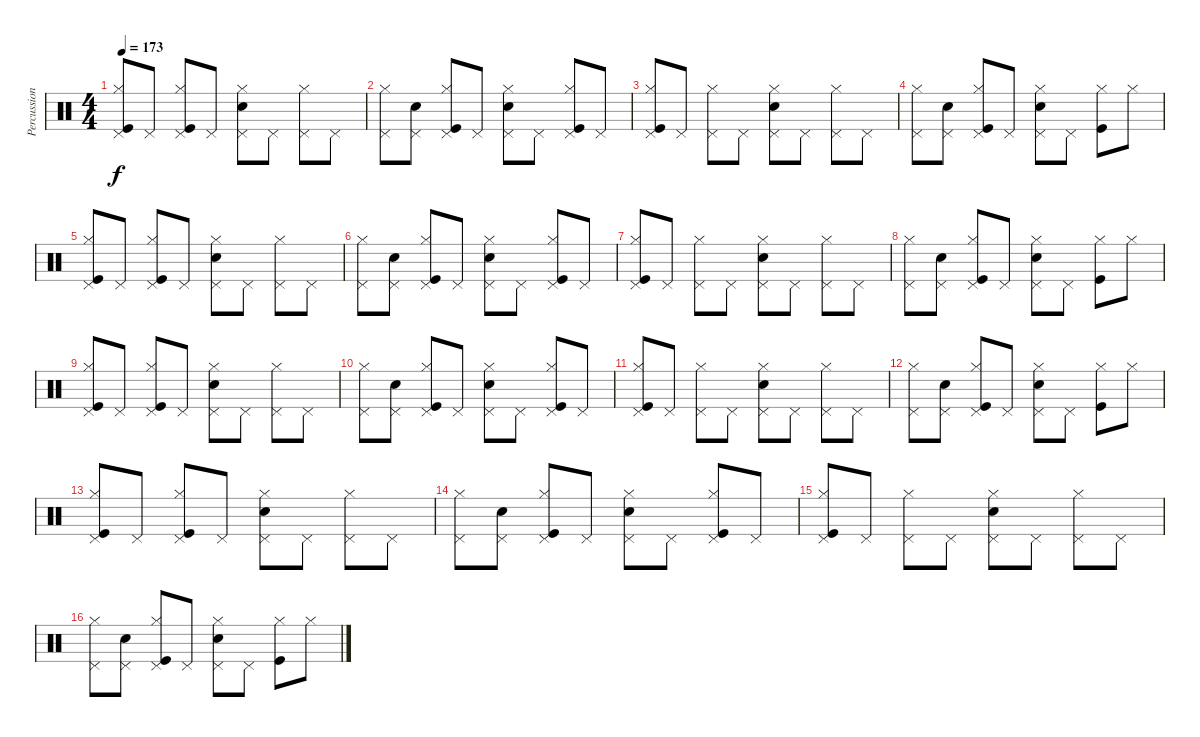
\track ("Percussion" "Percussion") {instrument percussion}
\staff {score}
\articulation defaults
\ts (4 4)
\tempo 173
\clef neutral
\ks c
("Kick (hit)" "Hi-Hat (closed)" "Pedal Hi-Hat (hit)").8{dy f} "Pedal Hi-Hat (hit)".8 ("Kick (hit)" "Hi-Hat (closed)" "Pedal Hi-Hat (hit)").8 "Pedal Hi-Hat (hit)".8 ("Snare (hit) 2" "Hi-Hat (closed)" "Pedal Hi-Hat (hit)").8 "Pedal Hi-Hat (hit)".8 ("Hi-Hat (closed)" "Pedal Hi-Hat (hit)").8 "Pedal Hi-Hat (hit)".8 |
("Hi-Hat (closed)" "Pedal Hi-Hat (hit)").8 ("Snare (hit) 2" "Pedal Hi-Hat (hit)").8 ("Kick (hit)" "Hi-Hat (closed)" "Pedal Hi-Hat (hit)").8 "Pedal Hi-Hat (hit)".8 ("Snare (hit) 2" "Hi-Hat (closed)" "Pedal Hi-Hat (hit)").8 "Pedal Hi-Hat (hit)".8 ("Kick (hit)" "Hi-Hat (closed)" "Pedal Hi-Hat (hit)").8 "Pedal Hi-Hat (hit)".8 |
("Kick (hit)" "Hi-Hat (closed)" "Pedal Hi-Hat (hit)").8 "Pedal Hi-Hat (hit)".8 ("Hi-Hat (closed)" "Pedal Hi-Hat (hit)").8 "Pedal Hi-Hat (hit)".8 ("Snare (hit) 2" "Hi-Hat (closed)" "Pedal Hi-Hat (hit)").8 "Pedal Hi-Hat (hit)".8 ("Hi-Hat (closed)" "Pedal Hi-Hat (hit)").8 "Pedal Hi-Hat (hit)".8 |
("Hi-Hat (closed)" "Pedal Hi-Hat (hit)").8 ("Snare (hit) 2" "Pedal Hi-Hat (hit)").8 ("Kick (hit)" "Hi-Hat (closed)" "Pedal Hi-Hat (hit)").8 "Pedal Hi-Hat (hit)".8 ("Snare (hit) 2" "Hi-Hat (closed)" "Pedal Hi-Hat (hit)").8 "Pedal Hi-Hat (hit)".8 ("Kick (hit)" "Hi-Hat (closed)").8 "Hi-Hat (closed)".8 |
("Kick (hit)" "Hi-Hat (closed)" "Pedal Hi-Hat (hit)").8 "Pedal Hi-Hat (hit)".8 ("Kick (hit)" "Hi-Hat (closed)" "Pedal Hi-Hat (hit)").8 "Pedal Hi-Hat (hit)".8 ("Snare (hit) 2" "Hi-Hat (closed)" "Pedal Hi-Hat (hit)").8 "Pedal Hi-Hat (hit)".8 ("Hi-Hat (closed)" "Pedal Hi-Hat (hit)").8 "Pedal Hi-Hat (hit)".8 |
("Hi-Hat (closed)" "Pedal Hi-Hat (hit)").8 ("Snare (hit) 2" "Pedal Hi-Hat (hit)").8 ("Kick (hit)" "Hi-Hat (closed)" "Pedal Hi-Hat (hit)").8 "Pedal Hi-Hat (hit)".8 ("Snare (hit) 2" "Hi-Hat (closed)" "Pedal Hi-Hat (hit)").8 "Pedal Hi-Hat (hit)".8 ("Kick (hit)" "Hi-Hat (closed)" "Pedal Hi-Hat (hit)").8 "Pedal Hi-Hat (hit)".8 |
("Kick (hit)" "Hi-Hat (closed)" "Pedal Hi-Hat (hit)").8 "Pedal Hi-Hat (hit)".8 ("Hi-Hat (closed)" "Pedal Hi-Hat (hit)").8 "Pedal Hi-Hat (hit)".8 ("Snare (hit) 2" "Hi-Hat (closed)" "Pedal Hi-Hat (hit)").8 "Pedal Hi-Hat (hit)".8 ("Hi-Hat (closed)" "Pedal Hi-Hat (hit)").8 "Pedal Hi-Hat (hit)".8 |
("Hi-Hat (closed)" "Pedal Hi-Hat (hit)").8 ("Snare (hit) 2" "Pedal Hi-Hat (hit)").8 ("Kick (hit)" "Hi-Hat (closed)" "Pedal Hi-Hat (hit)").8 "Pedal Hi-Hat (hit)".8 ("Snare (hit) 2" "Hi-Hat (closed)" "Pedal Hi-Hat (hit)").8 "Pedal Hi-Hat (hit)".8 ("Kick (hit)" "Hi-Hat (closed)").8 "Hi-Hat (closed)".8 |
("Kick (hit)" "Hi-Hat (closed)" "Pedal Hi-Hat (hit)").8 "Pedal Hi-Hat (hit)".8 ("Kick (hit)" "Hi-Hat (closed)" "Pedal Hi-Hat (hit)").8 "Pedal Hi-Hat (hit)".8 ("Snare (hit) 2" "Hi-Hat (closed)" "Pedal Hi-Hat (hit)").8 "Pedal Hi-Hat (hit)".8 ("Hi-Hat (closed)" "Pedal Hi-Hat (hit)").8 "Pedal Hi-Hat (hit)".8 |
("Hi-Hat (closed)" "Pedal Hi-Hat (hit)").8 ("Snare (hit) 2" "Pedal Hi-Hat (hit)").8 ("Kick (hit)" "Hi-Hat (closed)" "Pedal Hi-Hat (hit)").8 "Pedal Hi-Hat (hit)".8 ("Snare (hit) 2" "Hi-Hat (closed)" "Pedal Hi-Hat (hit)").8 "Pedal Hi-Hat (hit)".8 ("Kick (hit)" "Hi-Hat (closed)" "Pedal Hi-Hat (hit)").8 "Pedal Hi-Hat (hit)".8 |
("Kick (hit)" "Hi-Hat (closed)" "Pedal Hi-Hat (hit)").8 "Pedal Hi-Hat (hit)".8 ("Hi-Hat (closed)" "Pedal Hi-Hat (hit)").8 "Pedal Hi-Hat (hit)".8 ("Snare (hit) 2" "Hi-Hat (closed)" "Pedal Hi-Hat (hit)").8 "Pedal Hi-Hat (hit)".8 ("Hi-Hat (closed)" "Pedal Hi-Hat (hit)").8 "Pedal Hi-Hat (hit)".8 |
("Hi-Hat (closed)" "Pedal Hi-Hat (hit)").8 ("Snare (hit) 2" "Pedal Hi-Hat (hit)").8 ("Kick (hit)" "Hi-Hat (closed)" "Pedal Hi-Hat (hit)").8 "Pedal Hi-Hat (hit)".8 ("Snare (hit) 2" "Hi-Hat (closed)" "Pedal Hi-Hat (hit)").8 "Pedal Hi-Hat (hit)".8 ("Kick (hit)" "Hi-Hat (closed)").8 "Hi-Hat (closed)".8 |
("Kick (hit)" "Hi-Hat (closed)" "Pedal Hi-Hat (hit)").8 "Pedal Hi-Hat (hit)".8 ("Kick (hit)" "Hi-Hat (closed)" "Pedal Hi-Hat (hit)").8 "Pedal Hi-Hat (hit)".8 ("Snare (hit) 2" "Hi-Hat (closed)" "Pedal Hi-Hat (hit)").8 "Pedal Hi-Hat (hit)".8 ("Hi-Hat (closed)" "Pedal Hi-Hat (hit)").8 "Pedal Hi-Hat (hit)".8 |
("Hi-Hat (closed)" "Pedal Hi-Hat (hit)").8 ("Snare (hit) 2" "Pedal Hi-Hat (hit)").8 ("Kick (hit)" "Hi-Hat (closed)" "Pedal Hi-Hat (hit)").8 "Pedal Hi-Hat (hit)".8 ("Snare (hit) 2" "Hi-Hat (closed)" "Pedal Hi-Hat (hit)").8 "Pedal Hi-Hat (hit)".8 ("Kick (hit)" "Hi-Hat (closed)" "Pedal Hi-Hat (hit)").8 "Pedal Hi-Hat (hit)".8 |
("Kick (hit)" "Hi-Hat (closed)" "Pedal Hi-Hat (hit)").8 "Pedal Hi-Hat (hit)".8 ("Hi-Hat (closed)" "Pedal Hi-Hat (hit)").8 "Pedal Hi-Hat (hit)".8 ("Snare (hit) 2" "Hi-Hat (closed)" "Pedal Hi-Hat (hit)").8 "Pedal Hi-Hat (hit)".8 ("Hi-Hat (closed)" "Pedal Hi-Hat (hit)").8 "Pedal Hi-Hat (hit)".8 |
("Hi-Hat (closed)" "Pedal Hi-Hat (hit)").8 ("Snare (hit) 2" "Pedal Hi-Hat (hit)").8 ("Kick (hit)" "Hi-Hat (closed)" "Pedal Hi-Hat (hit)").8 "Pedal Hi-Hat (hit)".8 ("Snare (hit) 2" "Hi-Hat (closed)" "Pedal Hi-Hat (hit)").8 "Pedal Hi-Hat (hit)".8 ("Kick (hit)" "Hi-Hat (closed)").8 "Hi-Hat (closed)".8
